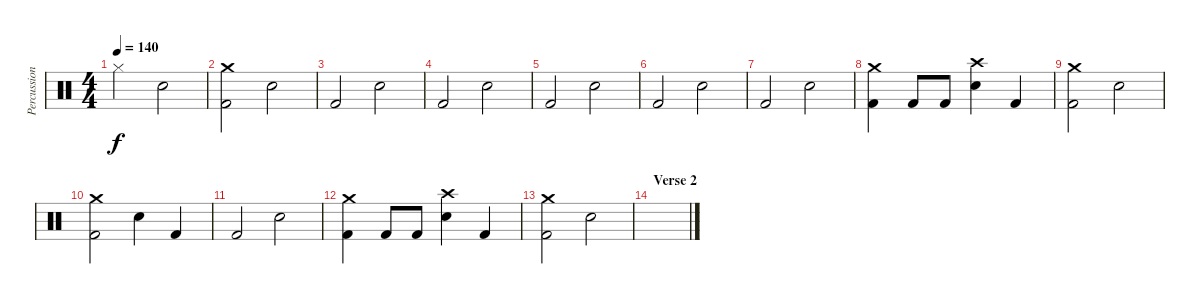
\track ("Percussion" "Percussion") {instrument percussion}
\staff {score}
\articulation defaults
\ts (4 4)
\tempo 140
\clef neutral
\ks c "Hi-Hat (closed)".2{dy f} "Snare (hit) 2".2
|
("Crash medium (hit)" "Kick (hit) 2").2 "Snare (hit) 2".2 |
"Kick (hit) 2".2 "Snare (hit) 2".2 |
"Kick (hit) 2".2 "Snare (hit) 2".2 |
"Kick (hit) 2".2 "Snare (hit) 2".2 |
"Kick (hit) 2".2 "Snare (hit) 2".2 |
"Kick (hit) 2".2 "Snare (hit) 2".2 |
("Crash medium (hit)" "Kick (hit) 2").4 "Kick (hit) 2".8 "Kick (hit) 2".8 ("Crash high (hit)" "Snare (hit) 2").4 "Kick (hit) 2".4 |
("Crash medium (hit)" "Kick (hit) 2").2 "Snare (hit) 2".2 |
("Crash medium (hit)" "Kick (hit) 2").2 "Snare (hit) 2".4 "Kick (hit) 2".4 |
"Kick (hit) 2".2 "Snare (hit) 2".2 |
("Crash medium (hit)" "Kick (hit) 2").4 "Kick (hit) 2".8 "Kick (hit) 2".8 ("Crash high (hit)" "Snare (hit) 2").4 "Kick (hit) 2".4 |
("Crash medium (hit)" "Kick (hit) 2").2 "Snare (hit) 2".2 |
\section ("" "Verse 2")
